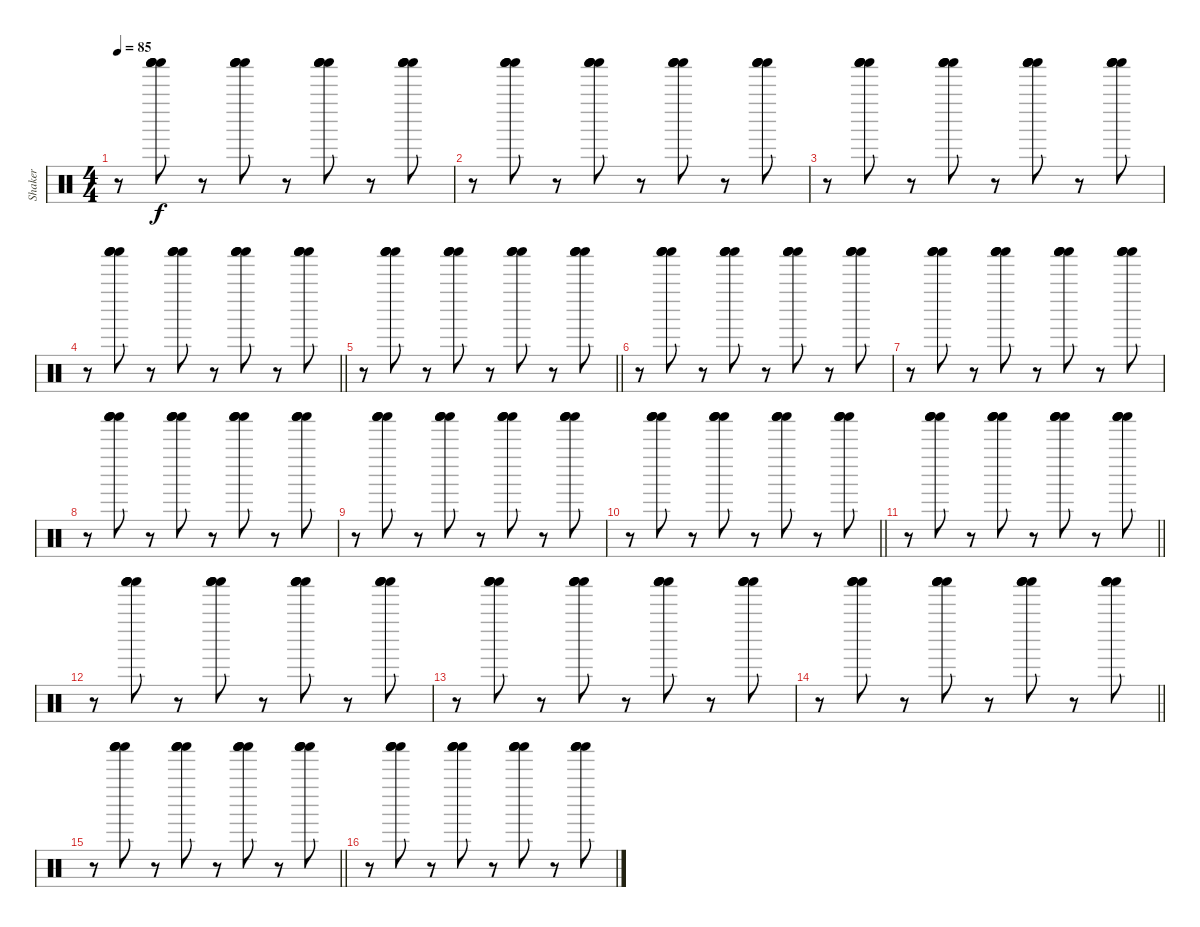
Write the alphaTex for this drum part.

\track ("Shaker" "Shaker") {instrument percussion}
\staff {score}
\articulation defaults
\ts (4 4)
\tempo 85
\clef neutral
\ks c
r.8{dy f} ("Shaker (hit)" "Shaker (hit)" "Shaker (hit)" "Shaker (hit)").8 r.8 ("Shaker (hit)" "Shaker (hit)" "Shaker (hit)" "Shaker (hit)").8 r.8 ("Shaker (hit)" "Shaker (hit)" "Shaker (hit)" "Shaker (hit)").8 r.8 ("Shaker (hit)" "Shaker (hit)" "Shaker (hit)" "Shaker (hit)").8 |
r.8 ("Shaker (hit)" "Shaker (hit)" "Shaker (hit)" "Shaker (hit)").8 r.8 ("Shaker (hit)" "Shaker (hit)" "Shaker (hit)" "Shaker (hit)").8 r.8 ("Shaker (hit)" "Shaker (hit)" "Shaker (hit)" "Shaker (hit)").8 r.8 ("Shaker (hit)" "Shaker (hit)" "Shaker (hit)" "Shaker (hit)").8 |
r.8 ("Shaker (hit)" "Shaker (hit)" "Shaker (hit)" "Shaker (hit)").8 r.8 ("Shaker (hit)" "Shaker (hit)" "Shaker (hit)" "Shaker (hit)").8 r.8 ("Shaker (hit)" "Shaker (hit)" "Shaker (hit)" "Shaker (hit)").8 r.8 ("Shaker (hit)" "Shaker (hit)" "Shaker (hit)" "Shaker (hit)").8 |
\barLineRight lightlight
r.8 ("Shaker (hit)" "Shaker (hit)" "Shaker (hit)" "Shaker (hit)").8 r.8 ("Shaker (hit)" "Shaker (hit)" "Shaker (hit)" "Shaker (hit)").8 r.8 ("Shaker (hit)" "Shaker (hit)" "Shaker (hit)" "Shaker (hit)").8 r.8 ("Shaker (hit)" "Shaker (hit)" "Shaker (hit)" "Shaker (hit)").8 |
\barLineRight lightlight
r.8 ("Shaker (hit)" "Shaker (hit)" "Shaker (hit)" "Shaker (hit)").8 r.8 ("Shaker (hit)" "Shaker (hit)" "Shaker (hit)" "Shaker (hit)").8 r.8 ("Shaker (hit)" "Shaker (hit)" "Shaker (hit)" "Shaker (hit)").8 r.8 ("Shaker (hit)" "Shaker (hit)" "Shaker (hit)" "Shaker (hit)").8 |
r.8 ("Shaker (hit)" "Shaker (hit)" "Shaker (hit)" "Shaker (hit)").8 r.8 ("Shaker (hit)" "Shaker (hit)" "Shaker (hit)" "Shaker (hit)").8 r.8 ("Shaker (hit)" "Shaker (hit)" "Shaker (hit)" "Shaker (hit)").8 r.8 ("Shaker (hit)" "Shaker (hit)" "Shaker (hit)" "Shaker (hit)").8 |
r.8 ("Shaker (hit)" "Shaker (hit)" "Shaker (hit)" "Shaker (hit)").8 r.8 ("Shaker (hit)" "Shaker (hit)" "Shaker (hit)" "Shaker (hit)").8 r.8 ("Shaker (hit)" "Shaker (hit)" "Shaker (hit)" "Shaker (hit)").8 r.8 ("Shaker (hit)" "Shaker (hit)" "Shaker (hit)" "Shaker (hit)").8 |
r.8 ("Shaker (hit)" "Shaker (hit)" "Shaker (hit)" "Shaker (hit)").8 r.8 ("Shaker (hit)" "Shaker (hit)" "Shaker (hit)" "Shaker (hit)").8 r.8 ("Shaker (hit)" "Shaker (hit)" "Shaker (hit)" "Shaker (hit)").8 r.8 ("Shaker (hit)" "Shaker (hit)" "Shaker (hit)" "Shaker (hit)").8 |
r.8 ("Shaker (hit)" "Shaker (hit)" "Shaker (hit)" "Shaker (hit)").8 r.8 ("Shaker (hit)" "Shaker (hit)" "Shaker (hit)" "Shaker (hit)").8 r.8 ("Shaker (hit)" "Shaker (hit)" "Shaker (hit)" "Shaker (hit)").8 r.8 ("Shaker (hit)" "Shaker (hit)" "Shaker (hit)" "Shaker (hit)").8 |
\barLineRight lightlight
r.8 ("Shaker (hit)" "Shaker (hit)" "Shaker (hit)" "Shaker (hit)").8 r.8 ("Shaker (hit)" "Shaker (hit)" "Shaker (hit)" "Shaker (hit)").8 r.8 ("Shaker (hit)" "Shaker (hit)" "Shaker (hit)" "Shaker (hit)").8 r.8 ("Shaker (hit)" "Shaker (hit)" "Shaker (hit)" "Shaker (hit)").8 |
\barLineRight lightlight
r.8 ("Shaker (hit)" "Shaker (hit)" "Shaker (hit)" "Shaker (hit)").8 r.8 ("Shaker (hit)" "Shaker (hit)" "Shaker (hit)" "Shaker (hit)").8 r.8 ("Shaker (hit)" "Shaker (hit)" "Shaker (hit)" "Shaker (hit)").8 r.8 ("Shaker (hit)" "Shaker (hit)" "Shaker (hit)" "Shaker (hit)").8 |
r.8 ("Shaker (hit)" "Shaker (hit)" "Shaker (hit)" "Shaker (hit)").8 r.8 ("Shaker (hit)" "Shaker (hit)" "Shaker (hit)" "Shaker (hit)").8 r.8 ("Shaker (hit)" "Shaker (hit)" "Shaker (hit)" "Shaker (hit)").8 r.8 ("Shaker (hit)" "Shaker (hit)" "Shaker (hit)" "Shaker (hit)").8 |
r.8 ("Shaker (hit)" "Shaker (hit)" "Shaker (hit)" "Shaker (hit)").8 r.8 ("Shaker (hit)" "Shaker (hit)" "Shaker (hit)" "Shaker (hit)").8 r.8 ("Shaker (hit)" "Shaker (hit)" "Shaker (hit)" "Shaker (hit)").8 r.8 ("Shaker (hit)" "Shaker (hit)" "Shaker (hit)" "Shaker (hit)").8 |
\barLineRight lightlight
r.8 ("Shaker (hit)" "Shaker (hit)" "Shaker (hit)" "Shaker (hit)").8 r.8 ("Shaker (hit)" "Shaker (hit)" "Shaker (hit)" "Shaker (hit)").8 r.8 ("Shaker (hit)" "Shaker (hit)" "Shaker (hit)" "Shaker (hit)").8 r.8 ("Shaker (hit)" "Shaker (hit)" "Shaker (hit)" "Shaker (hit)").8 |
\barLineRight lightlight
r.8 ("Shaker (hit)" "Shaker (hit)" "Shaker (hit)" "Shaker (hit)").8 r.8 ("Shaker (hit)" "Shaker (hit)" "Shaker (hit)" "Shaker (hit)").8 r.8 ("Shaker (hit)" "Shaker (hit)" "Shaker (hit)" "Shaker (hit)").8 r.8 ("Shaker (hit)" "Shaker (hit)" "Shaker (hit)" "Shaker (hit)").8 |
r.8 ("Shaker (hit)" "Shaker (hit)" "Shaker (hit)" "Shaker (hit)").8 r.8 ("Shaker (hit)" "Shaker (hit)" "Shaker (hit)" "Shaker (hit)").8 r.8 ("Shaker (hit)" "Shaker (hit)" "Shaker (hit)" "Shaker (hit)").8 r.8 ("Shaker (hit)" "Shaker (hit)" "Shaker (hit)" "Shaker (hit)").8
